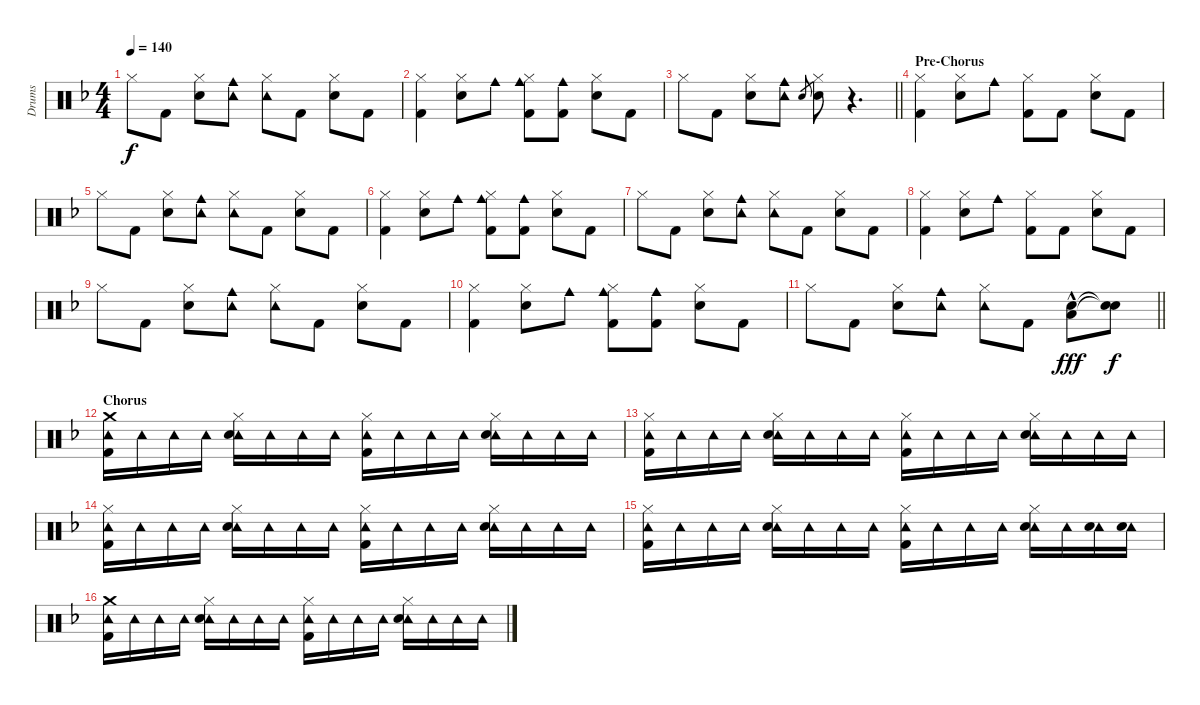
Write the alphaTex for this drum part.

\track ("Drums" "Drums") {instrument percussion}
\staff {score}
\articulation defaults
\ts (4 4)
\tempo 140
\clef neutral
\ks f "Hi-Hat (closed)".8{dy f} "Kick (hit) 2".8
("Hi-Hat (closed)" "Electric Snare (hit)").8 ("Tambourine (hit)" "Cowbell medium (hit)").8 ("Hi-Hat (closed)" "Tambourine (hit)").8 "Kick (hit) 2".8 ("Hi-Hat (closed)" "Electric Snare (hit)").8 "Kick (hit) 2".8 |
("Hi-Hat (closed)" "Kick (hit) 2").4 ("Hi-Hat (closed)" "Electric Snare (hit)").8 "Cowbell medium (hit)".8 ("Hi-Hat (closed)" "Cowbell medium (hit)" "Kick (hit) 2").8 ("Cowbell medium (hit)" "Kick (hit) 2").8 ("Hi-Hat (closed)" "Electric Snare (hit)").8 "Kick (hit) 2".8 |
\barLineRight lightlight "Hi-Hat (closed)".8 "Kick (hit) 2".8
("Hi-Hat (closed)" "Electric Snare (hit)").8 ("Tambourine (hit)" "Cowbell medium (hit)").8 "Electric Snare (hit)".8{gr} ("Hi-Hat (closed)" "Electric Snare (hit)").8 r.4{d} |
\section ("" "Pre-Chorus")
("Hi-Hat (closed)" "Kick (hit) 2").4 ("Hi-Hat (closed)" "Electric Snare (hit)").8 "Cowbell medium (hit)".8 ("Hi-Hat (closed)" "Kick (hit) 2").8 "Kick (hit) 2".8 ("Hi-Hat (closed)" "Electric Snare (hit)").8 "Kick (hit) 2".8 |
"Hi-Hat (closed)".8 "Kick (hit) 2".8 ("Hi-Hat (closed)" "Electric Snare (hit)").8 ("Tambourine (hit)" "Cowbell medium (hit)").8 ("Hi-Hat (closed)" "Tambourine (hit)").8 "Kick (hit) 2".8 ("Hi-Hat (closed)" "Electric Snare (hit)").8 "Kick (hit) 2".8 |
("Hi-Hat (closed)" "Kick (hit) 2").4 ("Hi-Hat (closed)" "Electric Snare (hit)").8 "Cowbell medium (hit)".8 ("Hi-Hat (closed)" "Cowbell medium (hit)" "Kick (hit) 2").8 ("Cowbell medium (hit)" "Kick (hit) 2").8 ("Hi-Hat (closed)" "Electric Snare (hit)").8 "Kick (hit) 2".8 |
"Hi-Hat (closed)".8 "Kick (hit) 2".8 ("Hi-Hat (closed)" "Electric Snare (hit)").8 ("Tambourine (hit)" "Cowbell medium (hit)").8 ("Hi-Hat (closed)" "Tambourine (hit)").8 "Kick (hit) 2".8 ("Hi-Hat (closed)" "Electric Snare (hit)").8 "Kick (hit) 2".8 |
("Hi-Hat (closed)" "Kick (hit) 2").4 ("Hi-Hat (closed)" "Electric Snare (hit)").8 "Cowbell medium (hit)".8 ("Hi-Hat (closed)" "Kick (hit) 2").8 "Kick (hit) 2".8 ("Hi-Hat (closed)" "Electric Snare (hit)").8 "Kick (hit) 2".8 |
"Hi-Hat (closed)".8 "Kick (hit) 2".8 ("Hi-Hat (closed)" "Electric Snare (hit)").8 ("Tambourine (hit)" "Cowbell medium (hit)").8 ("Hi-Hat (closed)" "Tambourine (hit)").8 "Kick (hit) 2".8 ("Hi-Hat (closed)" "Electric Snare (hit)").8 "Kick (hit) 2".8 |
("Hi-Hat (closed)" "Kick (hit) 2").4 ("Hi-Hat (closed)" "Electric Snare (hit)").8 "Cowbell medium (hit)".8 ("Hi-Hat (closed)" "Cowbell medium (hit)" "Kick (hit) 2").8 ("Cowbell medium (hit)" "Kick (hit) 2").8 ("Hi-Hat (closed)" "Electric Snare (hit)").8 "Kick (hit) 2".8 |
\barLineRight lightlight "Hi-Hat (closed)".8 "Kick (hit) 2".8
("Hi-Hat (closed)" "Electric Snare (hit)").8 ("Tambourine (hit)" "Cowbell medium (hit)").8 ("Hi-Hat (closed)" "Tambourine (hit)").8 "Kick (hit) 2".8 ("Electric Snare (hit)" "Low Tom (hit)"{hac}).8{dy fff} ("Snare (hit)"{t} "Snare (hit)"{t}).8{dy f} |
\section ("" "Chorus")
("Crash medium (hit)" "Tambourine (hit)" "Kick (hit) 2").16 "Tambourine (hit)".16 "Tambourine (hit)".16 "Tambourine (hit)".16 ("Hi-Hat (closed)" "Tambourine (hit)" "Electric Snare (hit)").16 "Tambourine (hit)".16 "Tambourine (hit)".16 "Tambourine (hit)".16 ("Hi-Hat (closed)" "Tambourine (hit)" "Kick (hit) 2").16 "Tambourine (hit)".16 "Tambourine (hit)".16 "Tambourine (hit)".16 ("Hi-Hat (closed)" "Tambourine (hit)" "Electric Snare (hit)").16 "Tambourine (hit)".16 "Tambourine (hit)".16 "Tambourine (hit)".16 |
("Hi-Hat (closed)" "Tambourine (hit)" "Kick (hit) 2").16 "Tambourine (hit)".16 "Tambourine (hit)".16 "Tambourine (hit)".16 ("Hi-Hat (closed)" "Tambourine (hit)" "Electric Snare (hit)").16 "Tambourine (hit)".16 "Tambourine (hit)".16 "Tambourine (hit)".16 ("Hi-Hat (closed)" "Tambourine (hit)" "Kick (hit) 2").16 "Tambourine (hit)".16 "Tambourine (hit)".16 "Tambourine (hit)".16 ("Hi-Hat (closed)" "Tambourine (hit)" "Electric Snare (hit)").16 "Tambourine (hit)".16 "Tambourine (hit)".16 "Tambourine (hit)".16 |
("Hi-Hat (closed)" "Tambourine (hit)" "Kick (hit) 2").16 "Tambourine (hit)".16 "Tambourine (hit)".16 "Tambourine (hit)".16 ("Hi-Hat (closed)" "Tambourine (hit)" "Electric Snare (hit)").16 "Tambourine (hit)".16 "Tambourine (hit)".16 "Tambourine (hit)".16 ("Hi-Hat (closed)" "Tambourine (hit)" "Kick (hit) 2").16 "Tambourine (hit)".16 "Tambourine (hit)".16 "Tambourine (hit)".16 ("Hi-Hat (closed)" "Tambourine (hit)" "Electric Snare (hit)").16 "Tambourine (hit)".16 "Tambourine (hit)".16 "Tambourine (hit)".16 |
("Hi-Hat (closed)" "Tambourine (hit)" "Kick (hit) 2").16 "Tambourine (hit)".16 "Tambourine (hit)".16 "Tambourine (hit)".16 ("Hi-Hat (closed)" "Tambourine (hit)" "Electric Snare (hit)").16 "Tambourine (hit)".16 "Tambourine (hit)".16 "Tambourine (hit)".16 ("Hi-Hat (closed)" "Tambourine (hit)" "Kick (hit) 2").16 "Tambourine (hit)".16 "Tambourine (hit)".16 "Tambourine (hit)".16 ("Hi-Hat (closed)" "Tambourine (hit)" "Electric Snare (hit)").16 "Tambourine (hit)".16 ("Tambourine (hit)" "Electric Snare (hit)").16 ("Tambourine (hit)" "Electric Snare (hit)").16 |
("Crash medium (hit)" "Tambourine (hit)" "Kick (hit) 2").16 "Tambourine (hit)".16 "Tambourine (hit)".16 "Tambourine (hit)".16 ("Hi-Hat (closed)" "Tambourine (hit)" "Electric Snare (hit)").16 "Tambourine (hit)".16 "Tambourine (hit)".16 "Tambourine (hit)".16 ("Hi-Hat (closed)" "Tambourine (hit)" "Kick (hit) 2").16 "Tambourine (hit)".16 "Tambourine (hit)".16 "Tambourine (hit)".16 ("Hi-Hat (closed)" "Tambourine (hit)" "Electric Snare (hit)").16 "Tambourine (hit)".16 "Tambourine (hit)".16 "Tambourine (hit)".16
